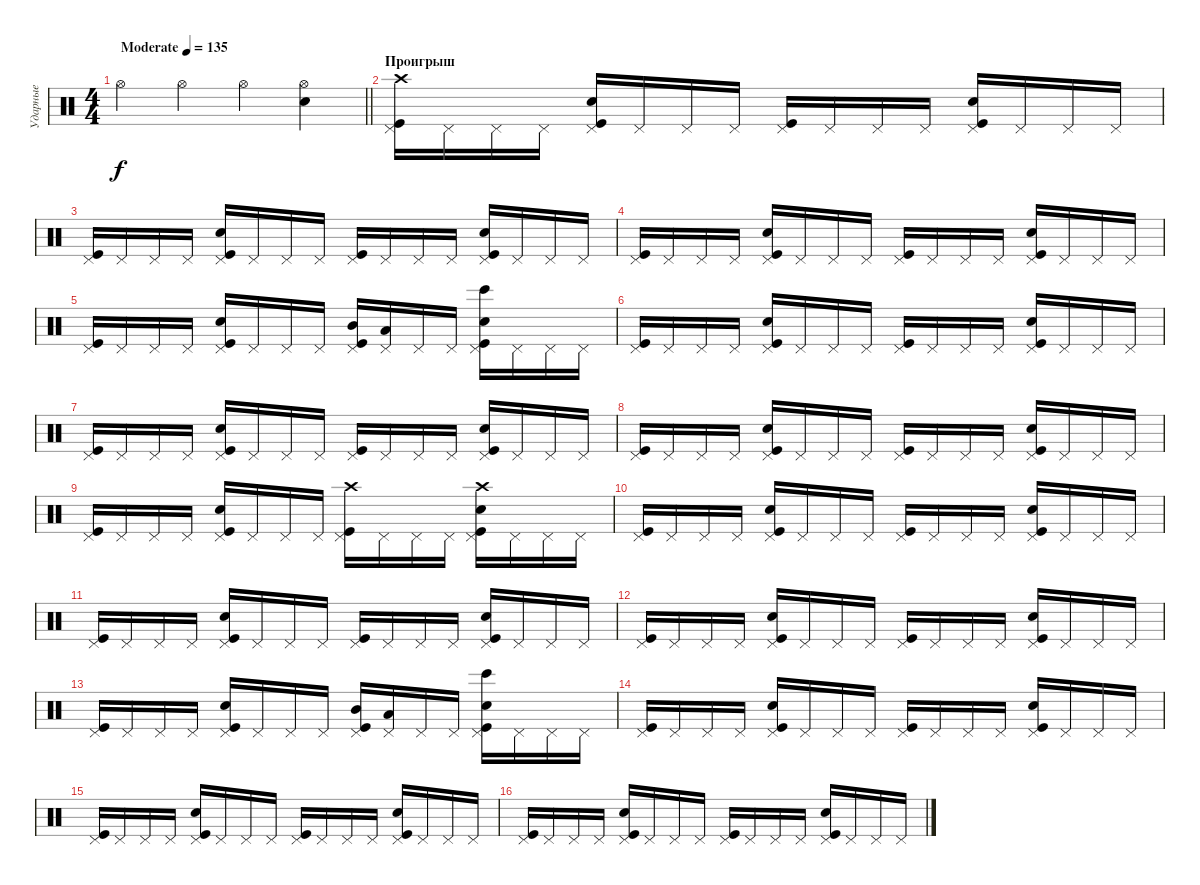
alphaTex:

\track ("Ударные" "Ударные") {instrument percussion}
\staff {score}
\articulation defaults
\ts (4 4)
\tempo (135 "Moderate")
\clef neutral
\barLineRight lightlight
\ks c "Hi-Hat (open)".4{dy f} "Hi-Hat (open)".4 "Hi-Hat (open)".4
("Snare (hit) 2" "Hi-Hat (open)").4 |
\section ("" "Проигрыш")
("Kick (hit)" "Pedal Hi-Hat (hit)" "Crash high (hit)").16 "Pedal Hi-Hat (hit)".16 "Pedal Hi-Hat (hit)".16 "Pedal Hi-Hat (hit)".16 ("Kick (hit)" "Pedal Hi-Hat (hit)" "Snare (hit) 2").16 "Pedal Hi-Hat (hit)".16 "Pedal Hi-Hat (hit)".16 "Pedal Hi-Hat (hit)".16 ("Kick (hit)" "Pedal Hi-Hat (hit)").16 "Pedal Hi-Hat (hit)".16 "Pedal Hi-Hat (hit)".16 "Pedal Hi-Hat (hit)".16 ("Kick (hit)" "Pedal Hi-Hat (hit)" "Snare (hit) 2").16 "Pedal Hi-Hat (hit)".16 "Pedal Hi-Hat (hit)".16 "Pedal Hi-Hat (hit)".16 |
("Kick (hit)" "Pedal Hi-Hat (hit)").16 "Pedal Hi-Hat (hit)".16 "Pedal Hi-Hat (hit)".16 "Pedal Hi-Hat (hit)".16 ("Kick (hit)" "Pedal Hi-Hat (hit)" "Snare (hit) 2").16 "Pedal Hi-Hat (hit)".16 "Pedal Hi-Hat (hit)".16 "Pedal Hi-Hat (hit)".16 ("Kick (hit)" "Pedal Hi-Hat (hit)").16 "Pedal Hi-Hat (hit)".16 "Pedal Hi-Hat (hit)".16 "Pedal Hi-Hat (hit)".16 ("Kick (hit)" "Pedal Hi-Hat (hit)" "Snare (hit) 2").16 "Pedal Hi-Hat (hit)".16 "Pedal Hi-Hat (hit)".16 "Pedal Hi-Hat (hit)".16 |
("Kick (hit)" "Pedal Hi-Hat (hit)").16 "Pedal Hi-Hat (hit)".16 "Pedal Hi-Hat (hit)".16 "Pedal Hi-Hat (hit)".16 ("Kick (hit)" "Pedal Hi-Hat (hit)" "Snare (hit) 2").16 "Pedal Hi-Hat (hit)".16 "Pedal Hi-Hat (hit)".16 "Pedal Hi-Hat (hit)".16 ("Kick (hit)" "Pedal Hi-Hat (hit)").16 "Pedal Hi-Hat (hit)".16 "Pedal Hi-Hat (hit)".16 "Pedal Hi-Hat (hit)".16 ("Kick (hit)" "Pedal Hi-Hat (hit)" "Snare (hit) 2").16 "Pedal Hi-Hat (hit)".16 "Pedal Hi-Hat (hit)".16 "Pedal Hi-Hat (hit)".16 |
("Kick (hit)" "Pedal Hi-Hat (hit)").16 "Pedal Hi-Hat (hit)".16 "Pedal Hi-Hat (hit)".16 "Pedal Hi-Hat (hit)".16 ("Kick (hit)" "Pedal Hi-Hat (hit)" "Snare (hit) 2").16 "Pedal Hi-Hat (hit)".16 "Pedal Hi-Hat (hit)".16 "Pedal Hi-Hat (hit)".16 ("Kick (hit)" "Pedal Hi-Hat (hit)" "Mid Tom (hit)").16 ("Pedal Hi-Hat (hit)" "Low Tom (hit)").16 "Pedal Hi-Hat (hit)".16 "Pedal Hi-Hat (hit)".16 ("Kick (hit)" "Pedal Hi-Hat (hit)" "Snare (hit) 2" "Bongo High (hit)").16 "Pedal Hi-Hat (hit)".16 "Pedal Hi-Hat (hit)".16 "Pedal Hi-Hat (hit)".16 |
("Kick (hit)" "Pedal Hi-Hat (hit)").16 "Pedal Hi-Hat (hit)".16 "Pedal Hi-Hat (hit)".16 "Pedal Hi-Hat (hit)".16 ("Kick (hit)" "Pedal Hi-Hat (hit)" "Snare (hit) 2").16 "Pedal Hi-Hat (hit)".16 "Pedal Hi-Hat (hit)".16 "Pedal Hi-Hat (hit)".16 ("Kick (hit)" "Pedal Hi-Hat (hit)").16 "Pedal Hi-Hat (hit)".16 "Pedal Hi-Hat (hit)".16 "Pedal Hi-Hat (hit)".16 ("Kick (hit)" "Pedal Hi-Hat (hit)" "Snare (hit) 2").16 "Pedal Hi-Hat (hit)".16 "Pedal Hi-Hat (hit)".16 "Pedal Hi-Hat (hit)".16 |
("Kick (hit)" "Pedal Hi-Hat (hit)").16 "Pedal Hi-Hat (hit)".16 "Pedal Hi-Hat (hit)".16 "Pedal Hi-Hat (hit)".16 ("Kick (hit)" "Pedal Hi-Hat (hit)" "Snare (hit) 2").16 "Pedal Hi-Hat (hit)".16 "Pedal Hi-Hat (hit)".16 "Pedal Hi-Hat (hit)".16 ("Kick (hit)" "Pedal Hi-Hat (hit)").16 "Pedal Hi-Hat (hit)".16 "Pedal Hi-Hat (hit)".16 "Pedal Hi-Hat (hit)".16 ("Kick (hit)" "Pedal Hi-Hat (hit)" "Snare (hit) 2").16 "Pedal Hi-Hat (hit)".16 "Pedal Hi-Hat (hit)".16 "Pedal Hi-Hat (hit)".16 |
("Kick (hit)" "Pedal Hi-Hat (hit)").16 "Pedal Hi-Hat (hit)".16 "Pedal Hi-Hat (hit)".16 "Pedal Hi-Hat (hit)".16 ("Kick (hit)" "Pedal Hi-Hat (hit)" "Snare (hit) 2").16 "Pedal Hi-Hat (hit)".16 "Pedal Hi-Hat (hit)".16 "Pedal Hi-Hat (hit)".16 ("Kick (hit)" "Pedal Hi-Hat (hit)").16 "Pedal Hi-Hat (hit)".16 "Pedal Hi-Hat (hit)".16 "Pedal Hi-Hat (hit)".16 ("Kick (hit)" "Pedal Hi-Hat (hit)" "Snare (hit) 2").16 "Pedal Hi-Hat (hit)".16 "Pedal Hi-Hat (hit)".16 "Pedal Hi-Hat (hit)".16 |
("Kick (hit)" "Pedal Hi-Hat (hit)").16 "Pedal Hi-Hat (hit)".16 "Pedal Hi-Hat (hit)".16 "Pedal Hi-Hat (hit)".16 ("Kick (hit)" "Pedal Hi-Hat (hit)" "Snare (hit) 2").16 "Pedal Hi-Hat (hit)".16 "Pedal Hi-Hat (hit)".16 "Pedal Hi-Hat (hit)".16 ("Kick (hit)" "Pedal Hi-Hat (hit)" "Crash high (hit)").16 "Pedal Hi-Hat (hit)".16 "Pedal Hi-Hat (hit)".16 "Pedal Hi-Hat (hit)".16 ("Kick (hit)" "Pedal Hi-Hat (hit)" "Snare (hit) 2" "Crash high (hit)").16 "Pedal Hi-Hat (hit)".16 "Pedal Hi-Hat (hit)".16 "Pedal Hi-Hat (hit)".16 |
("Kick (hit)" "Pedal Hi-Hat (hit)").16 "Pedal Hi-Hat (hit)".16 "Pedal Hi-Hat (hit)".16 "Pedal Hi-Hat (hit)".16 ("Kick (hit)" "Pedal Hi-Hat (hit)" "Snare (hit) 2").16 "Pedal Hi-Hat (hit)".16 "Pedal Hi-Hat (hit)".16 "Pedal Hi-Hat (hit)".16 ("Kick (hit)" "Pedal Hi-Hat (hit)").16 "Pedal Hi-Hat (hit)".16 "Pedal Hi-Hat (hit)".16 "Pedal Hi-Hat (hit)".16 ("Kick (hit)" "Pedal Hi-Hat (hit)" "Snare (hit) 2").16 "Pedal Hi-Hat (hit)".16 "Pedal Hi-Hat (hit)".16 "Pedal Hi-Hat (hit)".16 |
("Kick (hit)" "Pedal Hi-Hat (hit)").16 "Pedal Hi-Hat (hit)".16 "Pedal Hi-Hat (hit)".16 "Pedal Hi-Hat (hit)".16 ("Kick (hit)" "Pedal Hi-Hat (hit)" "Snare (hit) 2").16 "Pedal Hi-Hat (hit)".16 "Pedal Hi-Hat (hit)".16 "Pedal Hi-Hat (hit)".16 ("Kick (hit)" "Pedal Hi-Hat (hit)").16 "Pedal Hi-Hat (hit)".16 "Pedal Hi-Hat (hit)".16 "Pedal Hi-Hat (hit)".16 ("Kick (hit)" "Pedal Hi-Hat (hit)" "Snare (hit) 2").16 "Pedal Hi-Hat (hit)".16 "Pedal Hi-Hat (hit)".16 "Pedal Hi-Hat (hit)".16 |
("Kick (hit)" "Pedal Hi-Hat (hit)").16 "Pedal Hi-Hat (hit)".16 "Pedal Hi-Hat (hit)".16 "Pedal Hi-Hat (hit)".16 ("Kick (hit)" "Pedal Hi-Hat (hit)" "Snare (hit) 2").16 "Pedal Hi-Hat (hit)".16 "Pedal Hi-Hat (hit)".16 "Pedal Hi-Hat (hit)".16 ("Kick (hit)" "Pedal Hi-Hat (hit)").16 "Pedal Hi-Hat (hit)".16 "Pedal Hi-Hat (hit)".16 "Pedal Hi-Hat (hit)".16 ("Kick (hit)" "Pedal Hi-Hat (hit)" "Snare (hit) 2").16 "Pedal Hi-Hat (hit)".16 "Pedal Hi-Hat (hit)".16 "Pedal Hi-Hat (hit)".16 |
("Kick (hit)" "Pedal Hi-Hat (hit)").16 "Pedal Hi-Hat (hit)".16 "Pedal Hi-Hat (hit)".16 "Pedal Hi-Hat (hit)".16 ("Kick (hit)" "Pedal Hi-Hat (hit)" "Snare (hit) 2").16 "Pedal Hi-Hat (hit)".16 "Pedal Hi-Hat (hit)".16 "Pedal Hi-Hat (hit)".16 ("Kick (hit)" "Pedal Hi-Hat (hit)" "Mid Tom (hit)").16 ("Pedal Hi-Hat (hit)" "Low Tom (hit)").16 "Pedal Hi-Hat (hit)".16 "Pedal Hi-Hat (hit)".16 ("Kick (hit)" "Pedal Hi-Hat (hit)" "Snare (hit) 2" "Bongo High (hit)").16 "Pedal Hi-Hat (hit)".16 "Pedal Hi-Hat (hit)".16 "Pedal Hi-Hat (hit)".16 |
("Kick (hit)" "Pedal Hi-Hat (hit)").16 "Pedal Hi-Hat (hit)".16 "Pedal Hi-Hat (hit)".16 "Pedal Hi-Hat (hit)".16 ("Kick (hit)" "Pedal Hi-Hat (hit)" "Snare (hit) 2").16 "Pedal Hi-Hat (hit)".16 "Pedal Hi-Hat (hit)".16 "Pedal Hi-Hat (hit)".16 ("Kick (hit)" "Pedal Hi-Hat (hit)").16 "Pedal Hi-Hat (hit)".16 "Pedal Hi-Hat (hit)".16 "Pedal Hi-Hat (hit)".16 ("Kick (hit)" "Pedal Hi-Hat (hit)" "Snare (hit) 2").16 "Pedal Hi-Hat (hit)".16 "Pedal Hi-Hat (hit)".16 "Pedal Hi-Hat (hit)".16 |
("Kick (hit)" "Pedal Hi-Hat (hit)").16 "Pedal Hi-Hat (hit)".16 "Pedal Hi-Hat (hit)".16 "Pedal Hi-Hat (hit)".16 ("Kick (hit)" "Pedal Hi-Hat (hit)" "Snare (hit) 2").16 "Pedal Hi-Hat (hit)".16 "Pedal Hi-Hat (hit)".16 "Pedal Hi-Hat (hit)".16 ("Kick (hit)" "Pedal Hi-Hat (hit)").16 "Pedal Hi-Hat (hit)".16 "Pedal Hi-Hat (hit)".16 "Pedal Hi-Hat (hit)".16 ("Kick (hit)" "Pedal Hi-Hat (hit)" "Snare (hit) 2").16 "Pedal Hi-Hat (hit)".16 "Pedal Hi-Hat (hit)".16 "Pedal Hi-Hat (hit)".16 |
("Kick (hit)" "Pedal Hi-Hat (hit)").16 "Pedal Hi-Hat (hit)".16 "Pedal Hi-Hat (hit)".16 "Pedal Hi-Hat (hit)".16 ("Kick (hit)" "Pedal Hi-Hat (hit)" "Snare (hit) 2").16 "Pedal Hi-Hat (hit)".16 "Pedal Hi-Hat (hit)".16 "Pedal Hi-Hat (hit)".16 ("Kick (hit)" "Pedal Hi-Hat (hit)").16 "Pedal Hi-Hat (hit)".16 "Pedal Hi-Hat (hit)".16 "Pedal Hi-Hat (hit)".16 ("Kick (hit)" "Pedal Hi-Hat (hit)" "Snare (hit) 2").16 "Pedal Hi-Hat (hit)".16 "Pedal Hi-Hat (hit)".16 "Pedal Hi-Hat (hit)".16
